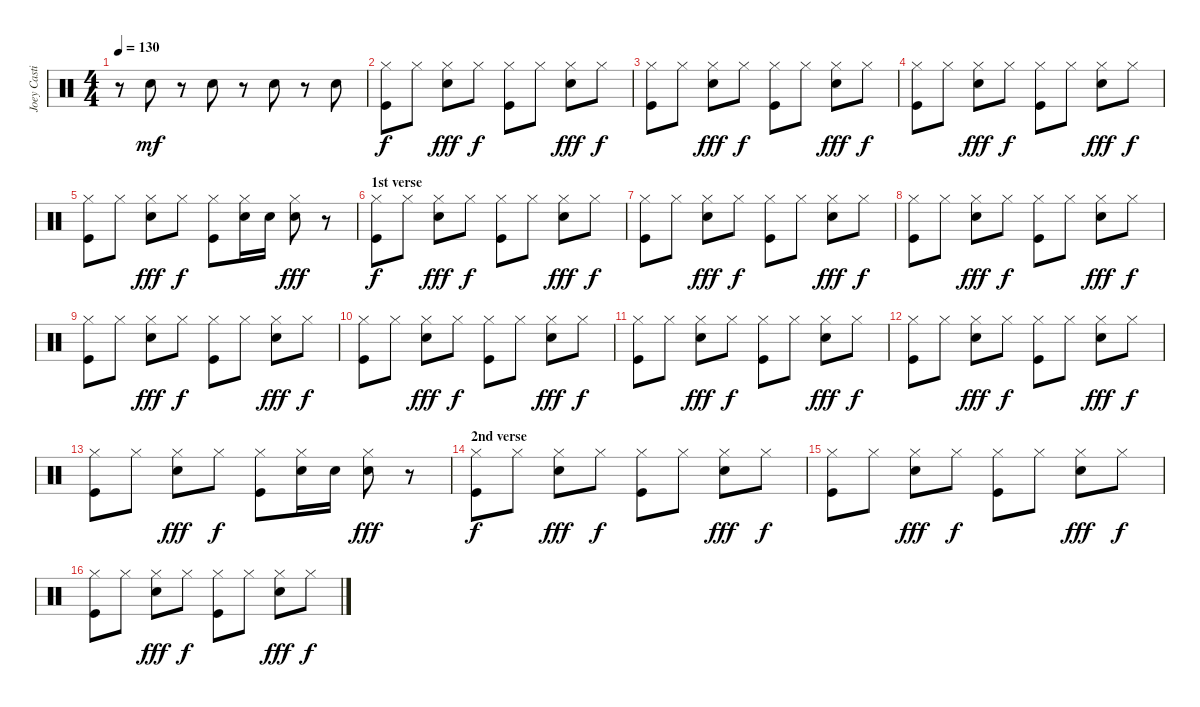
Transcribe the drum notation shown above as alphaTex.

\track ("Joey Castillo - drums" "Joey Casti") {instrument percussion}
\staff {score}
\articulation defaults
\ts (4 4)
\tempo 130
\clef neutral
\ks c
r.8{dy mf} "Electric Snare (hit)".8 r.8 "Electric Snare (hit)".8 r.8 "Electric Snare (hit)".8 r.8 "Electric Snare (hit)".8 |
("Hi-Hat (closed)" "Kick (hit)").8{dy f} "Hi-Hat (closed)".8 ("Hi-Hat (closed)" "Electric Snare (hit)").8{dy fff} "Hi-Hat (closed)".8{dy f} ("Hi-Hat (closed)" "Kick (hit)").8 "Hi-Hat (closed)".8 ("Hi-Hat (closed)" "Electric Snare (hit)").8{dy fff} "Hi-Hat (closed)".8{dy f} |
("Hi-Hat (closed)" "Kick (hit)").8 "Hi-Hat (closed)".8 ("Hi-Hat (closed)" "Electric Snare (hit)").8{dy fff} "Hi-Hat (closed)".8{dy f} ("Hi-Hat (closed)" "Kick (hit)").8 "Hi-Hat (closed)".8 ("Hi-Hat (closed)" "Electric Snare (hit)").8{dy fff} "Hi-Hat (closed)".8{dy f} |
("Hi-Hat (closed)" "Kick (hit)").8 "Hi-Hat (closed)".8 ("Hi-Hat (closed)" "Electric Snare (hit)").8{dy fff} "Hi-Hat (closed)".8{dy f} ("Hi-Hat (closed)" "Kick (hit)").8 "Hi-Hat (closed)".8 ("Hi-Hat (closed)" "Electric Snare (hit)").8{dy fff} "Hi-Hat (closed)".8{dy f} |
("Hi-Hat (closed)" "Kick (hit)").8 "Hi-Hat (closed)".8 ("Hi-Hat (closed)" "Electric Snare (hit)").8{dy fff} "Hi-Hat (closed)".8{dy f} ("Hi-Hat (closed)" "Kick (hit)").8 ("Hi-Hat (closed)" "Electric Snare (hit)").16 "Electric Snare (hit)".16 ("Hi-Hat (closed)" "Electric Snare (hit)").8{dy fff} r.8 |
\section ("" "1st verse")
("Hi-Hat (closed)" "Kick (hit)").8{dy f} "Hi-Hat (closed)".8 ("Hi-Hat (closed)" "Electric Snare (hit)").8{dy fff} "Hi-Hat (closed)".8{dy f} ("Hi-Hat (closed)" "Kick (hit)").8 "Hi-Hat (closed)".8 ("Hi-Hat (closed)" "Electric Snare (hit)").8{dy fff} "Hi-Hat (closed)".8{dy f} |
("Hi-Hat (closed)" "Kick (hit)").8 "Hi-Hat (closed)".8 ("Hi-Hat (closed)" "Electric Snare (hit)").8{dy fff} "Hi-Hat (closed)".8{dy f} ("Hi-Hat (closed)" "Kick (hit)").8 "Hi-Hat (closed)".8 ("Hi-Hat (closed)" "Electric Snare (hit)").8{dy fff} "Hi-Hat (closed)".8{dy f} |
("Hi-Hat (closed)" "Kick (hit)").8 "Hi-Hat (closed)".8 ("Hi-Hat (closed)" "Electric Snare (hit)").8{dy fff} "Hi-Hat (closed)".8{dy f} ("Hi-Hat (closed)" "Kick (hit)").8 "Hi-Hat (closed)".8 ("Hi-Hat (closed)" "Electric Snare (hit)").8{dy fff} "Hi-Hat (closed)".8{dy f} |
("Hi-Hat (closed)" "Kick (hit)").8 "Hi-Hat (closed)".8 ("Hi-Hat (closed)" "Electric Snare (hit)").8{dy fff} "Hi-Hat (closed)".8{dy f} ("Hi-Hat (closed)" "Kick (hit)").8 "Hi-Hat (closed)".8 ("Hi-Hat (closed)" "Electric Snare (hit)").8{dy fff} "Hi-Hat (closed)".8{dy f} |
("Hi-Hat (closed)" "Kick (hit)").8 "Hi-Hat (closed)".8 ("Hi-Hat (closed)" "Electric Snare (hit)").8{dy fff} "Hi-Hat (closed)".8{dy f} ("Hi-Hat (closed)" "Kick (hit)").8 "Hi-Hat (closed)".8 ("Hi-Hat (closed)" "Electric Snare (hit)").8{dy fff} "Hi-Hat (closed)".8{dy f} |
("Hi-Hat (closed)" "Kick (hit)").8 "Hi-Hat (closed)".8 ("Hi-Hat (closed)" "Electric Snare (hit)").8{dy fff} "Hi-Hat (closed)".8{dy f} ("Hi-Hat (closed)" "Kick (hit)").8 "Hi-Hat (closed)".8 ("Hi-Hat (closed)" "Electric Snare (hit)").8{dy fff} "Hi-Hat (closed)".8{dy f} |
("Hi-Hat (closed)" "Kick (hit)").8 "Hi-Hat (closed)".8 ("Hi-Hat (closed)" "Electric Snare (hit)").8{dy fff} "Hi-Hat (closed)".8{dy f} ("Hi-Hat (closed)" "Kick (hit)").8 "Hi-Hat (closed)".8 ("Hi-Hat (closed)" "Electric Snare (hit)").8{dy fff} "Hi-Hat (closed)".8{dy f} |
("Hi-Hat (closed)" "Kick (hit)").8 "Hi-Hat (closed)".8 ("Hi-Hat (closed)" "Electric Snare (hit)").8{dy fff} "Hi-Hat (closed)".8{dy f} ("Hi-Hat (closed)" "Kick (hit)").8 ("Hi-Hat (closed)" "Electric Snare (hit)").16 "Electric Snare (hit)".16 ("Hi-Hat (closed)" "Electric Snare (hit)").8{dy fff} r.8 |
\section ("" "2nd verse")
("Hi-Hat (closed)" "Kick (hit)").8{dy f} "Hi-Hat (closed)".8 ("Hi-Hat (closed)" "Electric Snare (hit)").8{dy fff} "Hi-Hat (closed)".8{dy f} ("Hi-Hat (closed)" "Kick (hit)").8 "Hi-Hat (closed)".8 ("Hi-Hat (closed)" "Electric Snare (hit)").8{dy fff} "Hi-Hat (closed)".8{dy f} |
("Hi-Hat (closed)" "Kick (hit)").8 "Hi-Hat (closed)".8 ("Hi-Hat (closed)" "Electric Snare (hit)").8{dy fff} "Hi-Hat (closed)".8{dy f} ("Hi-Hat (closed)" "Kick (hit)").8 "Hi-Hat (closed)".8 ("Hi-Hat (closed)" "Electric Snare (hit)").8{dy fff} "Hi-Hat (closed)".8{dy f} |
("Hi-Hat (closed)" "Kick (hit)").8 "Hi-Hat (closed)".8 ("Hi-Hat (closed)" "Electric Snare (hit)").8{dy fff} "Hi-Hat (closed)".8{dy f} ("Hi-Hat (closed)" "Kick (hit)").8 "Hi-Hat (closed)".8 ("Hi-Hat (closed)" "Electric Snare (hit)").8{dy fff} "Hi-Hat (closed)".8{dy f}
